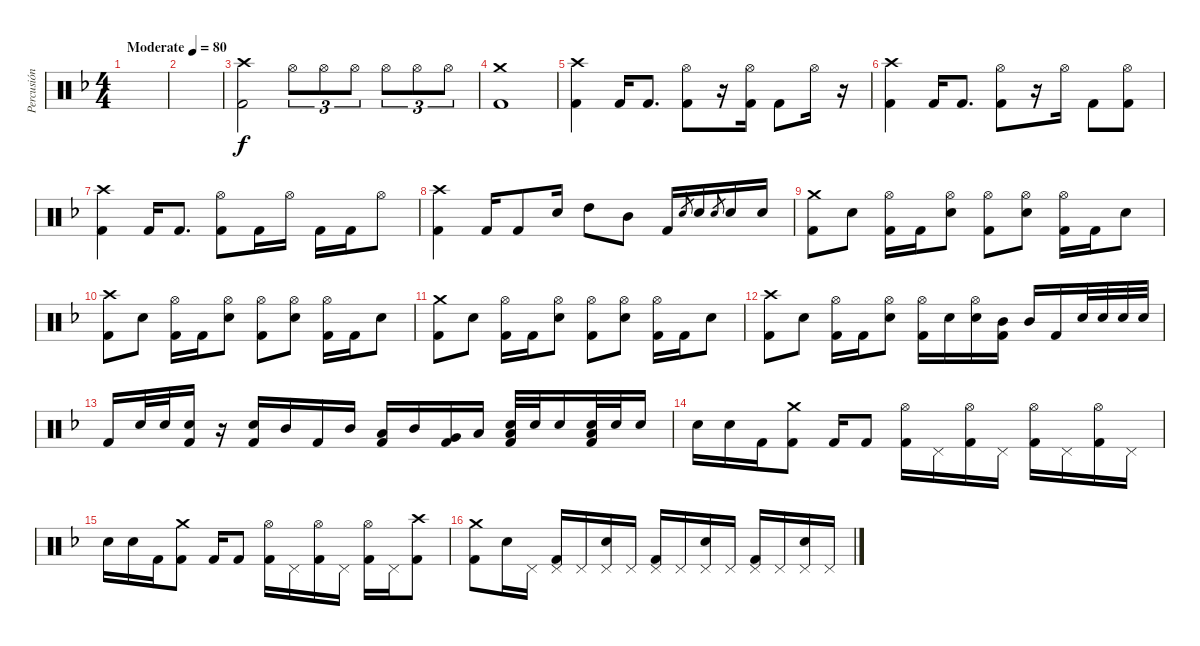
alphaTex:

\track ("Percusión" "Percusión") {instrument percussion}
\staff {score}
\articulation defaults
\ts (4 4)
\tempo (80 "Moderate")
\clef neutral
\ks f
|
|
("Crash high (hit)" "Kick (hit) 2").2 "Hi-Hat (open)".8{tu (3 2)} "Hi-Hat (open)".8{tu (3 2)} "Hi-Hat (open)".8{tu (3 2)} "Hi-Hat (open)".8{tu (3 2)} "Hi-Hat (open)".8{tu (3 2)} "Hi-Hat (open)".8{tu (3 2)} |
("Crash medium (hit)" "Kick (hit) 2").1 |
("Crash high (hit)" "Kick (hit) 2").4 "Kick (hit) 2".16 "Kick (hit) 2".8{d} ("Hi-Hat (open)" "Kick (hit) 2").8 r.16 ("Hi-Hat (open)" "Kick (hit) 2").16 "Kick (hit) 2".8 "Hi-Hat (open)".16 r.16 |
("Crash high (hit)" "Kick (hit) 2").4 "Kick (hit) 2".16 "Kick (hit) 2".8{d} ("Hi-Hat (open)" "Kick (hit) 2").8 r.16 "Hi-Hat (open)".16 "Kick (hit) 2".8 ("Hi-Hat (open)" "Kick (hit) 2").8 |
("Crash high (hit)" "Kick (hit) 2").4 "Kick (hit) 2".16 "Kick (hit) 2".8{d} ("Hi-Hat (open)" "Kick (hit) 2").8 "Kick (hit) 2".16 "Hi-Hat (open)".16 "Kick (hit) 2".16 "Kick (hit) 2".16 "Hi-Hat (open)".8 |
("Crash high (hit)" "Kick (hit) 2").4 "Kick (hit) 2".16 "Kick (hit) 2".8 "Electric Snare (hit)".16 "High Tom (hit)".8 "Mid Tom (hit)".8 "Kick (hit) 2".16 "Electric Snare (hit)".8{gr} "Electric Snare (hit)".16 "Electric Snare (hit)".8{gr} "Electric Snare (hit)".16 "Electric Snare (hit)".16 |
("Crash medium (hit)" "Kick (hit) 2").8 "Electric Snare (hit)".8 ("Hi-Hat (open)" "Kick (hit) 2").16 "Kick (hit) 2".16 ("Hi-Hat (open)" "Electric Snare (hit)").8 ("Hi-Hat (open)" "Kick (hit) 2").8 ("Hi-Hat (open)" "Electric Snare (hit)").8 ("Hi-Hat (open)" "Kick (hit) 2").16 "Kick (hit) 2".16 "Electric Snare (hit)".8 |
("Crash high (hit)" "Kick (hit) 2").8 "Electric Snare (hit)".8 ("Hi-Hat (open)" "Kick (hit) 2").16 "Kick (hit) 2".16 ("Hi-Hat (open)" "Electric Snare (hit)").8 ("Hi-Hat (open)" "Kick (hit) 2").8 ("Hi-Hat (open)" "Electric Snare (hit)").8 ("Hi-Hat (open)" "Kick (hit) 2").16 "Kick (hit) 2".16 "Electric Snare (hit)".8 |
("Crash medium (hit)" "Kick (hit) 2").8 "Electric Snare (hit)".8 ("Hi-Hat (open)" "Kick (hit) 2").16 "Kick (hit) 2".16 ("Hi-Hat (open)" "Electric Snare (hit)").8 ("Hi-Hat (open)" "Kick (hit) 2").8 ("Hi-Hat (open)" "Electric Snare (hit)").8 ("Hi-Hat (open)" "Kick (hit) 2").16 "Kick (hit) 2".16 "Electric Snare (hit)".8 |
("Crash high (hit)" "Kick (hit) 2").8 "Electric Snare (hit)".8 ("Hi-Hat (open)" "Kick (hit) 2").16 "Kick (hit) 2".16 ("Hi-Hat (open)" "Electric Snare (hit)").8 ("Hi-Hat (open)" "Kick (hit) 2").16 "Electric Snare (hit)".16 ("Hi-Hat (open)" "Electric Snare (hit)").16 ("Mid Tom (hit)" "Kick (hit) 2").16 "Mid Tom (hit)".16 "Kick (hit) 2".16 "Electric Snare (hit)".32 "Electric Snare (hit)".32 "Electric Snare (hit)".32 "Electric Snare (hit)".32 |
"Kick (hit) 2".16 "Electric Snare (hit)".32 "Electric Snare (hit)".32 ("Electric Snare (hit)" "Kick (hit) 2").16 r.16 ("Electric Snare (hit)" "Kick (hit) 2").16 "Mid Tom (hit)".16 "Kick (hit) 2".16 "Mid Tom (hit)".16 ("Low Tom (hit)" "Kick (hit) 2").16 "Mid Tom (hit)".16 ("Very Low Tom (hit)" "Kick (hit) 2").16 "Low Floor Tom (hit)".16 ("Electric Snare (hit)" "Low Floor Tom (hit)" "Kick (hit) 2").32 "Electric Snare (hit)".32 "Electric Snare (hit)".16 ("Electric Snare (hit)" "Low Floor Tom (hit)" "Kick (hit) 2").32 "Electric Snare (hit)".32 "Electric Snare (hit)".16 |
"Electric Snare (hit)".16 "Electric Snare (hit)".16 "Kick (hit) 2".16 ("Crash medium (hit)" "Kick (hit) 2").8 "Kick (hit) 2".16 "Kick (hit) 2".8 ("Hi-Hat (open)" "Kick (hit) 2").16 "Pedal Hi-Hat (hit)".16 ("Hi-Hat (open)" "Kick (hit) 2").16 "Pedal Hi-Hat (hit)".16 ("Hi-Hat (open)" "Kick (hit) 2").16 "Pedal Hi-Hat (hit)".16 ("Hi-Hat (open)" "Kick (hit) 2").16 "Pedal Hi-Hat (hit)".16 |
"Electric Snare (hit)".16 "Electric Snare (hit)".16 "Kick (hit) 2".16 ("Crash medium (hit)" "Kick (hit) 2").8 "Kick (hit) 2".16 "Kick (hit) 2".8 ("Hi-Hat (open)" "Kick (hit) 2").16 "Pedal Hi-Hat (hit)".16 ("Hi-Hat (open)" "Kick (hit) 2").16 "Pedal Hi-Hat (hit)".16 ("Hi-Hat (open)" "Kick (hit) 2").16 "Pedal Hi-Hat (hit)".16 ("Crash high (hit)" "Kick (hit) 2").8 |
("Crash medium (hit)" "Kick (hit) 2").8 "Electric Snare (hit)".16 "Pedal Hi-Hat (hit)".16 ("Pedal Hi-Hat (hit)" "Kick (hit) 2").16 "Pedal Hi-Hat (hit)".16 ("Pedal Hi-Hat (hit)" "Electric Snare (hit)").16 "Pedal Hi-Hat (hit)".16 ("Pedal Hi-Hat (hit)" "Kick (hit) 2").16 "Pedal Hi-Hat (hit)".16 ("Pedal Hi-Hat (hit)" "Electric Snare (hit)").16 "Pedal Hi-Hat (hit)".16 ("Pedal Hi-Hat (hit)" "Kick (hit) 2").16 "Pedal Hi-Hat (hit)".16 ("Pedal Hi-Hat (hit)" "Electric Snare (hit)").16 "Pedal Hi-Hat (hit)".16
